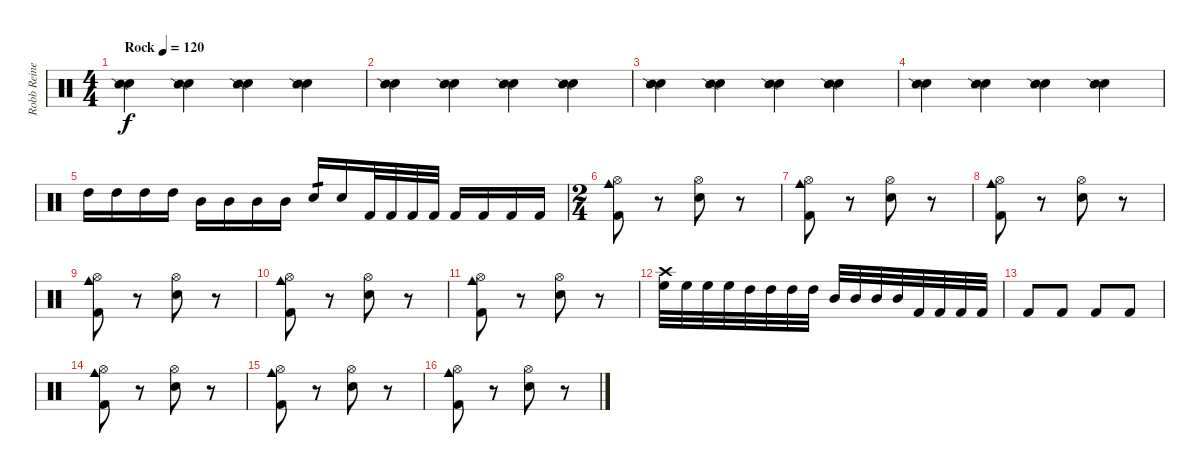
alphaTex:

\track ("Robb Reiner" "Robb Reine") {instrument percussion}
\staff {score}
\articulation defaults
\ts (4 4)
\tempo (120 "Rock")
\clef neutral
\ks c
("Metronome (bell)" "Snare (side stick) 2").4{dy f} ("Metronome (bell)" "Snare (side stick) 2").4 ("Metronome (bell)" "Snare (side stick) 2").4 ("Metronome (bell)" "Snare (side stick) 2").4 |
("Metronome (bell)" "Snare (side stick) 2").4 ("Metronome (bell)" "Snare (side stick) 2").4 ("Metronome (bell)" "Snare (side stick) 2").4 ("Metronome (bell)" "Snare (side stick) 2").4 |
("Metronome (bell)" "Snare (side stick) 2").4 ("Metronome (bell)" "Snare (side stick) 2").4 ("Metronome (bell)" "Snare (side stick) 2").4 ("Metronome (bell)" "Snare (side stick) 2").4 |
("Metronome (bell)" "Snare (side stick) 2").4 ("Metronome (bell)" "Snare (side stick) 2").4 ("Metronome (bell)" "Snare (side stick) 2").4 ("Metronome (bell)" "Snare (side stick) 2").4 |
"High Tom (hit)".16 "High Tom (hit)".16 "High Tom (hit)".16 "High Tom (hit)".16 "Mid Tom (hit)".16 "Mid Tom (hit)".16 "Mid Tom (hit)".16 "Mid Tom (hit)".16 "Snare (hit) 2".16{tp 1} "Snare (hit) 2".16 "Kick (hit) 2".32 "Kick (hit) 2".32 "Kick (hit) 2".32 "Kick (hit) 2".32 "Kick (hit) 2".16 "Kick (hit) 2".16 "Kick (hit) 2".16 "Kick (hit) 2".16 |
\ts (2 4)
("Cowbell medium (hit)" "Hi-Hat (open)" "Kick (hit) 2").8 r.8 ("Hi-Hat (open)" "Snare (hit) 2").8 r.8 |
("Cowbell medium (hit)" "Hi-Hat (open)" "Kick (hit) 2").8 r.8 ("Hi-Hat (open)" "Snare (hit) 2").8 r.8 |
("Cowbell medium (hit)" "Hi-Hat (open)" "Kick (hit) 2").8 r.8 ("Hi-Hat (open)" "Snare (hit) 2").8 r.8 |
("Cowbell medium (hit)" "Hi-Hat (open)" "Kick (hit) 2").8 r.8 ("Hi-Hat (open)" "Snare (hit) 2").8 r.8 |
("Cowbell medium (hit)" "Hi-Hat (open)" "Kick (hit) 2").8 r.8 ("Hi-Hat (open)" "Snare (hit) 2").8 r.8 |
("Cowbell medium (hit)" "Hi-Hat (open)" "Kick (hit) 2").8 r.8 ("Hi-Hat (open)" "Snare (hit) 2").8 r.8 |
("High Floor Tom (hit)" "Crash high (hit)").32 "High Floor Tom (hit)".32 "High Floor Tom (hit)".32 "High Floor Tom (hit)".32 "High Tom (hit)".32 "High Tom (hit)".32 "High Tom (hit)".32 "High Tom (hit)".32 "Mid Tom (hit)".32 "Mid Tom (hit)".32 "Mid Tom (hit)".32 "Mid Tom (hit)".32 "Kick (hit) 2".32 "Kick (hit) 2".32 "Kick (hit) 2".32 "Kick (hit) 2".32 |
"Kick (hit) 2".8 "Kick (hit) 2".8 "Kick (hit) 2".8 "Kick (hit) 2".8 |
("Cowbell medium (hit)" "Hi-Hat (open)" "Kick (hit) 2").8 r.8 ("Hi-Hat (open)" "Snare (hit) 2").8 r.8 |
("Cowbell medium (hit)" "Hi-Hat (open)" "Kick (hit) 2").8 r.8 ("Hi-Hat (open)" "Snare (hit) 2").8 r.8 |
("Cowbell medium (hit)" "Hi-Hat (open)" "Kick (hit) 2").8 r.8 ("Hi-Hat (open)" "Snare (hit) 2").8 r.8
